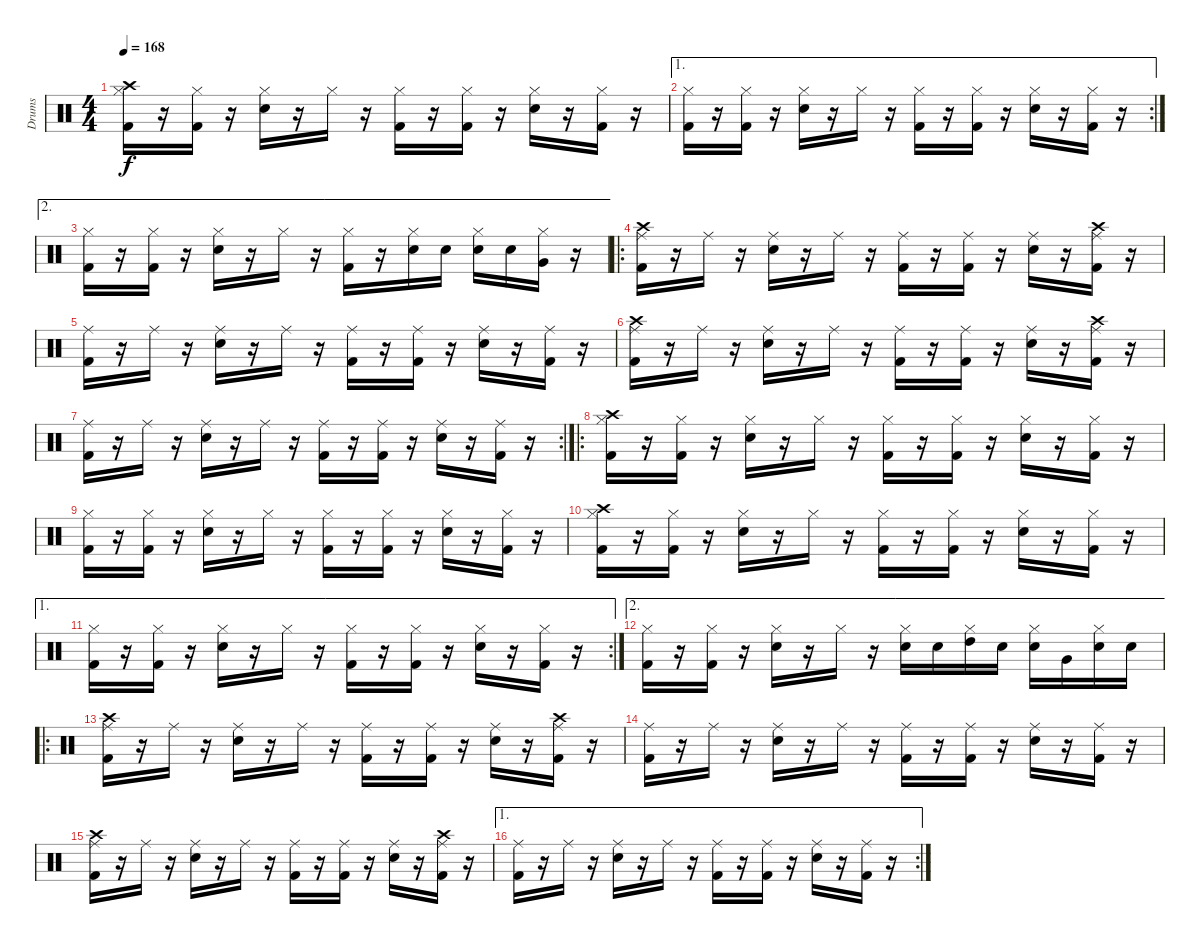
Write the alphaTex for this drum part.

\track ("Drums" "Drums") {instrument percussion}
\staff {score}
\articulation defaults
\ts (4 4)
\tempo 168
\clef neutral
\ks c
("Hi-Hat (closed)" "Kick (hit) 2" "Crash high (hit)").16{dy f} r.16 ("Hi-Hat (closed)" "Kick (hit) 2").16 r.16 ("Hi-Hat (closed)" "Snare (hit) 2").16 r.16 "Hi-Hat (closed)".16 r.16 ("Hi-Hat (closed)" "Kick (hit) 2").16 r.16 ("Hi-Hat (closed)" "Kick (hit) 2").16 r.16 ("Hi-Hat (closed)" "Snare (hit) 2").16 r.16 ("Hi-Hat (closed)" "Kick (hit) 2").16 r.16 |
\ae 1
\rc 2
("Hi-Hat (closed)" "Kick (hit) 2").16 r.16 ("Hi-Hat (closed)" "Kick (hit) 2").16 r.16 ("Hi-Hat (closed)" "Snare (hit) 2").16 r.16 "Hi-Hat (closed)".16 r.16 ("Hi-Hat (closed)" "Kick (hit) 2").16 r.16 ("Hi-Hat (closed)" "Kick (hit) 2").16 r.16 ("Hi-Hat (closed)" "Snare (hit) 2").16 r.16 ("Hi-Hat (closed)" "Kick (hit) 2").16 r.16 |
\ae 2
("Hi-Hat (closed)" "Kick (hit) 2").16 r.16 ("Hi-Hat (closed)" "Kick (hit) 2").16 r.16 ("Hi-Hat (closed)" "Snare (hit) 2").16 r.16 "Hi-Hat (closed)".16 r.16 ("Hi-Hat (closed)" "Kick (hit) 2").16 r.16 ("Hi-Hat (closed)" "Snare (hit) 2").16 "Snare (hit) 2".16 ("Hi-Hat (closed)" "Snare (hit) 2").16 "Snare (hit) 2".16 ("Hi-Hat (closed)" "Very Low Tom (hit)").16 r.16 |
\ro
("Ride (middle)" "Kick (hit) 2" "Crash high (hit)").16 r.16 "Ride (middle)".16 r.16 ("Ride (middle)" "Snare (hit) 2").16 r.16 "Ride (middle)".16 r.16 ("Ride (middle)" "Kick (hit) 2").16 r.16 ("Ride (middle)" "Kick (hit) 2").16 r.16 ("Ride (middle)" "Snare (hit) 2").16 r.16 ("Ride (middle)" "Kick (hit) 2" "Crash high (hit)").16 r.16 |
("Ride (middle)" "Kick (hit) 2").16 r.16 "Ride (middle)".16 r.16 ("Ride (middle)" "Snare (hit) 2").16 r.16 "Ride (middle)".16 r.16 ("Ride (middle)" "Kick (hit) 2").16 r.16 ("Ride (middle)" "Kick (hit) 2").16 r.16 ("Ride (middle)" "Snare (hit) 2").16 r.16 ("Ride (middle)" "Kick (hit) 2").16 r.16 |
("Ride (middle)" "Kick (hit) 2" "Crash high (hit)").16 r.16 "Ride (middle)".16 r.16 ("Ride (middle)" "Snare (hit) 2").16 r.16 "Ride (middle)".16 r.16 ("Ride (middle)" "Kick (hit) 2").16 r.16 ("Ride (middle)" "Kick (hit) 2").16 r.16 ("Ride (middle)" "Snare (hit) 2").16 r.16 ("Ride (middle)" "Kick (hit) 2" "Crash high (hit)").16 r.16 |
\rc 2
("Ride (middle)" "Kick (hit) 2").16 r.16 "Ride (middle)".16 r.16 ("Ride (middle)" "Snare (hit) 2").16 r.16 "Ride (middle)".16 r.16 ("Ride (middle)" "Kick (hit) 2").16 r.16 ("Ride (middle)" "Kick (hit) 2").16 r.16 ("Ride (middle)" "Snare (hit) 2").16 r.16 ("Ride (middle)" "Kick (hit) 2").16 r.16 |
\ro
("Hi-Hat (closed)" "Kick (hit) 2" "Crash high (hit)").16 r.16 ("Hi-Hat (closed)" "Kick (hit) 2").16 r.16 ("Hi-Hat (closed)" "Snare (hit) 2").16 r.16 "Hi-Hat (closed)".16 r.16 ("Hi-Hat (closed)" "Kick (hit) 2").16 r.16 ("Hi-Hat (closed)" "Kick (hit) 2").16 r.16 ("Hi-Hat (closed)" "Snare (hit) 2").16 r.16 ("Hi-Hat (closed)" "Kick (hit) 2").16 r.16 |
("Hi-Hat (closed)" "Kick (hit) 2").16 r.16 ("Hi-Hat (closed)" "Kick (hit) 2").16 r.16 ("Hi-Hat (closed)" "Snare (hit) 2").16 r.16 "Hi-Hat (closed)".16 r.16 ("Hi-Hat (closed)" "Kick (hit) 2").16 r.16 ("Hi-Hat (closed)" "Kick (hit) 2").16 r.16 ("Hi-Hat (closed)" "Snare (hit) 2").16 r.16 ("Hi-Hat (closed)" "Kick (hit) 2").16 r.16 |
("Hi-Hat (closed)" "Kick (hit) 2" "Crash high (hit)").16 r.16 ("Hi-Hat (closed)" "Kick (hit) 2").16 r.16 ("Hi-Hat (closed)" "Snare (hit) 2").16 r.16 "Hi-Hat (closed)".16 r.16 ("Hi-Hat (closed)" "Kick (hit) 2").16 r.16 ("Hi-Hat (closed)" "Kick (hit) 2").16 r.16 ("Hi-Hat (closed)" "Snare (hit) 2").16 r.16 ("Hi-Hat (closed)" "Kick (hit) 2").16 r.16 |
\ae 1
\rc 2
("Hi-Hat (closed)" "Kick (hit) 2").16 r.16 ("Hi-Hat (closed)" "Kick (hit) 2").16 r.16 ("Hi-Hat (closed)" "Snare (hit) 2").16 r.16 "Hi-Hat (closed)".16 r.16 ("Hi-Hat (closed)" "Kick (hit) 2").16 r.16 ("Hi-Hat (closed)" "Kick (hit) 2").16 r.16 ("Hi-Hat (closed)" "Snare (hit) 2").16 r.16 ("Hi-Hat (closed)" "Kick (hit) 2").16 r.16 |
\ae 2
("Hi-Hat (closed)" "Kick (hit) 2").16 r.16 ("Hi-Hat (closed)" "Kick (hit) 2").16 r.16 ("Hi-Hat (closed)" "Snare (hit) 2").16 r.16 "Hi-Hat (closed)".16 r.16 ("Hi-Hat (closed)" "Snare (hit) 2").16 "Snare (hit) 2".16 ("Hi-Hat (closed)" "High Tom (hit)").16 "Snare (hit) 2".16 ("Hi-Hat (closed)" "Snare (hit) 2").16 "Very Low Tom (hit)".16 ("Hi-Hat (closed)" "Snare (hit) 2").16 "Snare (hit) 2".16 |
\ro
("Ride (middle)" "Kick (hit) 2" "Crash high (hit)").16 r.16 "Ride (middle)".16 r.16 ("Ride (middle)" "Snare (hit) 2").16 r.16 "Ride (middle)".16 r.16 ("Ride (middle)" "Kick (hit) 2").16 r.16 ("Ride (middle)" "Kick (hit) 2").16 r.16 ("Ride (middle)" "Snare (hit) 2").16 r.16 ("Ride (middle)" "Kick (hit) 2" "Crash high (hit)").16 r.16 |
("Ride (middle)" "Kick (hit) 2").16 r.16 "Ride (middle)".16 r.16 ("Ride (middle)" "Snare (hit) 2").16 r.16 "Ride (middle)".16 r.16 ("Ride (middle)" "Kick (hit) 2").16 r.16 ("Ride (middle)" "Kick (hit) 2").16 r.16 ("Ride (middle)" "Snare (hit) 2").16 r.16 ("Ride (middle)" "Kick (hit) 2").16 r.16 |
("Ride (middle)" "Kick (hit) 2" "Crash high (hit)").16 r.16 "Ride (middle)".16 r.16 ("Ride (middle)" "Snare (hit) 2").16 r.16 "Ride (middle)".16 r.16 ("Ride (middle)" "Kick (hit) 2").16 r.16 ("Ride (middle)" "Kick (hit) 2").16 r.16 ("Ride (middle)" "Snare (hit) 2").16 r.16 ("Ride (middle)" "Kick (hit) 2" "Crash high (hit)").16 r.16 |
\ae 1
\rc 2
("Ride (middle)" "Kick (hit) 2").16 r.16 "Ride (middle)".16 r.16 ("Ride (middle)" "Snare (hit) 2").16 r.16 "Ride (middle)".16 r.16 ("Ride (middle)" "Kick (hit) 2").16 r.16 ("Ride (middle)" "Kick (hit) 2").16 r.16 ("Ride (middle)" "Snare (hit) 2").16 r.16 ("Ride (middle)" "Kick (hit) 2").16 r.16
